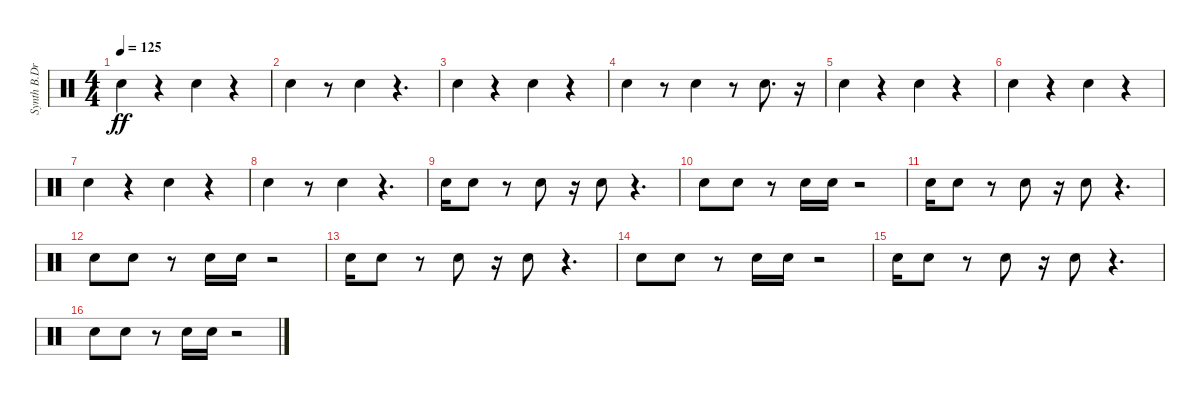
\track ("Synth B.Drum" "Synth B.Dr") {instrument percussion}
\staff {score}
\articulation defaults
\ts (4 4)
\tempo 125
\clef neutral
\ks c "Snare (hit)".4{dy ff}
r.4 "Snare (hit)".4 r.4 |
"Snare (hit)".4 r.8 "Snare (hit)".4 r.4{d} |
"Snare (hit)".4 r.4 "Snare (hit)".4 r.4 |
"Snare (hit)".4 r.8 "Snare (hit)".4 r.8 "Snare (hit)".8{d} r.16 |
"Snare (hit)".4 r.4 "Snare (hit)".4 r.4 |
"Snare (hit)".4 r.4 "Snare (hit)".4 r.4 |
"Snare (hit)".4 r.4 "Snare (hit)".4 r.4 |
"Snare (hit)".4 r.8 "Snare (hit)".4 r.4{d} |
"Snare (hit)".16 "Snare (hit)".8 r.8 "Snare (hit)".8 r.16 "Snare (hit)".8 r.4{d} |
"Snare (hit)".8 "Snare (hit)".8 r.8 "Snare (hit)".16 "Snare (hit)".16 r.2 |
"Snare (hit)".16 "Snare (hit)".8 r.8 "Snare (hit)".8 r.16 "Snare (hit)".8 r.4{d} |
"Snare (hit)".8 "Snare (hit)".8 r.8 "Snare (hit)".16 "Snare (hit)".16 r.2 |
"Snare (hit)".16 "Snare (hit)".8 r.8 "Snare (hit)".8 r.16 "Snare (hit)".8 r.4{d} |
"Snare (hit)".8 "Snare (hit)".8 r.8 "Snare (hit)".16 "Snare (hit)".16 r.2 |
"Snare (hit)".16 "Snare (hit)".8 r.8 "Snare (hit)".8 r.16 "Snare (hit)".8 r.4{d} |
"Snare (hit)".8 "Snare (hit)".8 r.8 "Snare (hit)".16 "Snare (hit)".16 r.2
